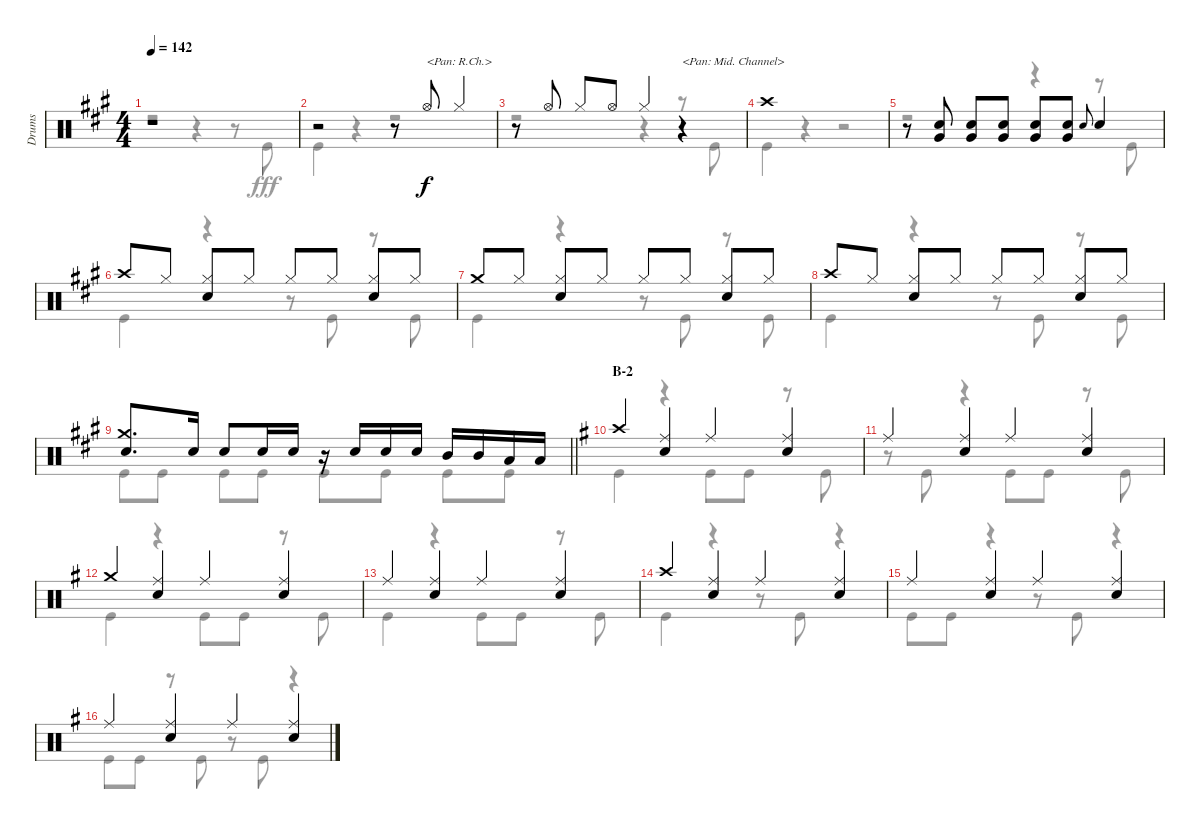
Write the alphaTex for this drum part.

\track ("Drums" "Drums") {instrument percussion}
\staff {score}
\articulation defaults
\voice
\ts (4 4)
\tempo 142
\clef neutral
\ks a
r.1{dy f} |
r.2 r.8 "Hi-Hat (open)".8{txt "<Pan: R.Ch.>" balance 16} "Hi-Hat (closed)".4 |
r.8 "Hi-Hat (open)".8 "Hi-Hat (closed)".8 "Hi-Hat (open)".8 "Hi-Hat (closed)".4 r.4{txt "<Pan: Mid. Channel>" balance 8} |
"Crash high (hit)".1 |
r.8 ("Snare (hit) 2" "Very Low Tom (hit)").8 ("Snare (hit) 2" "Very Low Tom (hit)").8 ("Snare (hit) 2" "Very Low Tom (hit)").8 ("Snare (hit) 2" "Very Low Tom (hit)").8 ("Snare (hit) 2" "Very Low Tom (hit)").8 "Snare (hit) 2".8{gr onbeat} "Snare (hit) 2".4 |
"Crash high (hit)".8 "Hi-Hat (closed)".8 ("Hi-Hat (closed)" "Snare (hit) 2").8 "Hi-Hat (closed)".8 "Hi-Hat (closed)".8 "Hi-Hat (closed)".8 ("Hi-Hat (closed)" "Snare (hit) 2").8 "Hi-Hat (closed)".8 |
"Crash medium (hit)".8 "Hi-Hat (closed)".8 ("Hi-Hat (closed)" "Snare (hit) 2").8 "Hi-Hat (closed)".8 "Hi-Hat (closed)".8 "Hi-Hat (closed)".8 ("Hi-Hat (closed)" "Snare (hit) 2").8 "Hi-Hat (closed)".8 |
"Crash high (hit)".8 "Hi-Hat (closed)".8 ("Hi-Hat (closed)" "Snare (hit) 2").8 "Hi-Hat (closed)".8 "Hi-Hat (closed)".8 "Hi-Hat (closed)".8 ("Hi-Hat (closed)" "Snare (hit) 2").8 "Hi-Hat (closed)".8 |
\barLineRight lightlight
("Crash medium (hit)" "Snare (hit) 2").8{d} "Snare (hit) 2".16 "Snare (hit) 2".8 "Snare (hit) 2".16 "Snare (hit) 2".16 r.16 "Snare (hit) 2".16 "Snare (hit) 2".16 "Snare (hit) 2".16 "Mid Tom (hit)".16 "Mid Tom (hit)".16 "Low Tom (hit)".16 "Low Tom (hit)".16 |
\section ("" "B-2")
\ks g "Crash high (hit)".4
("Ride (middle)" "Snare (hit) 2").4 "Ride (middle)".4 ("Ride (middle)" "Snare (hit) 2").4 |
"Ride (middle)".4 ("Ride (middle)" "Snare (hit) 2").4 "Ride (middle)".4 ("Ride (middle)" "Snare (hit) 2").4 |
"Crash medium (hit)".4 ("Ride (middle)" "Snare (hit) 2").4 "Ride (middle)".4 ("Ride (middle)" "Snare (hit) 2").4 |
"Ride (middle)".4 ("Ride (middle)" "Snare (hit) 2").4 "Ride (middle)".4 ("Ride (middle)" "Snare (hit) 2").4 |
"Crash high (hit)".4 ("Ride (middle)" "Snare (hit) 2").4 "Ride (middle)".4 ("Ride (middle)" "Snare (hit) 2").4 |
"Ride (middle)".4 ("Ride (middle)" "Snare (hit) 2").4 "Ride (middle)".4 ("Ride (middle)" "Snare (hit) 2").4 |
"Ride (middle)".4 ("Ride (middle)" "Snare (hit) 2").4 "Ride (middle)".4 ("Ride (middle)" "Snare (hit) 2").4
\voice
\clef neutral
\ottava regular
\simile none
\ks a
r.2{dy fff} r.4 r.8 "Kick (hit)".8 |
"Kick (hit)".4 r.4 r.2 |
r.2 r.4 r.8 "Kick (hit)".8 |
"Kick (hit)".4 r.4 r.2 |
r.2 r.4 r.8 "Kick (hit)".8 |
"Kick (hit)".4 r.4 r.8 "Kick (hit)".8 r.8 "Kick (hit)".8 |
"Kick (hit)".4 r.4 r.8 "Kick (hit)".8 r.8 "Kick (hit)".8 |
"Kick (hit)".4 r.4 r.8 "Kick (hit)".8 r.8 "Kick (hit)".8 |
\barLineRight lightlight "Kick (hit)".8 "Kick (hit)".8 "Kick (hit)".8 "Kick (hit)".8 "Kick (hit)".8 "Kick (hit)".8 "Kick (hit)".8 "Kick (hit)".8
|
\ks g "Kick (hit)".4
r.4 "Kick (hit)".8 "Kick (hit)".8 r.8 "Kick (hit)".8 |
r.8 "Kick (hit)".8 r.4 "Kick (hit)".8 "Kick (hit)".8 r.8 "Kick (hit)".8 |
"Kick (hit)".4 r.4 "Kick (hit)".8 "Kick (hit)".8 r.8 "Kick (hit)".8 |
"Kick (hit)".4 r.4 "Kick (hit)".8 "Kick (hit)".8 r.8 "Kick (hit)".8 |
"Kick (hit)".4 r.4 r.8 "Kick (hit)".8 r.4 |
"Kick (hit)".8 "Kick (hit)".8 r.4 r.8 "Kick (hit)".8 r.4 |
"Kick (hit)".8 "Kick (hit)".8 r.8 "Kick (hit)".8 r.8 "Kick (hit)".8 r.4
